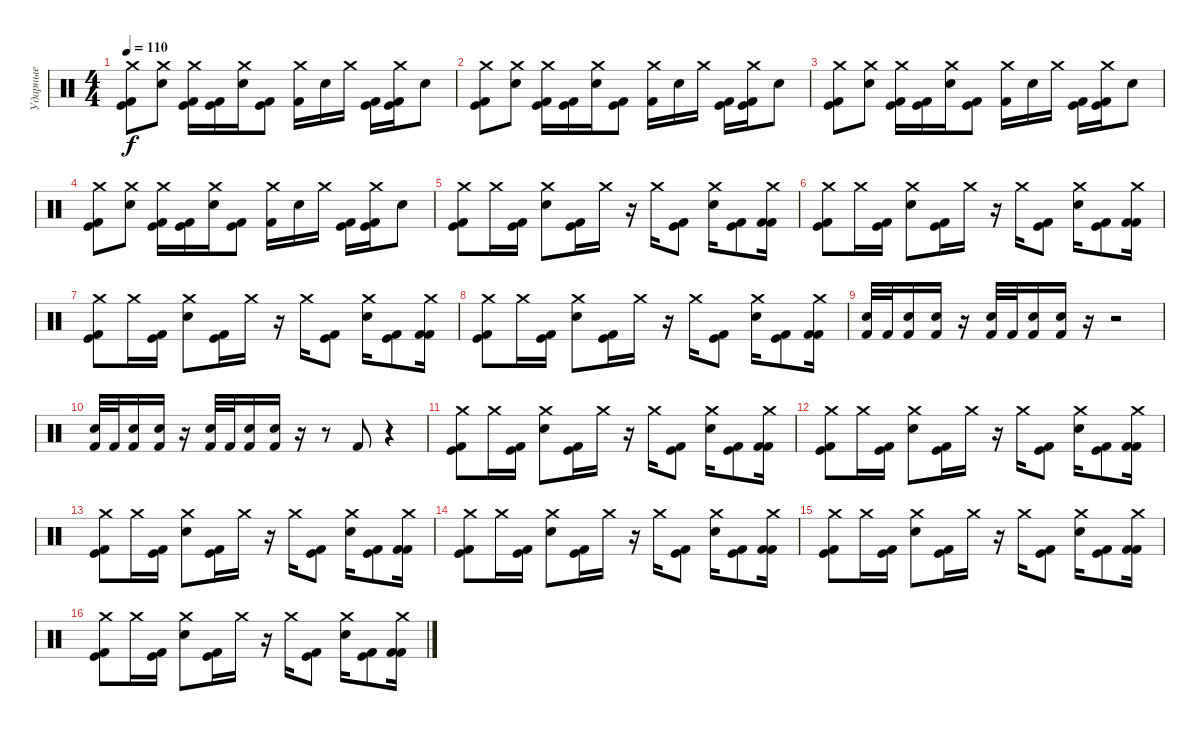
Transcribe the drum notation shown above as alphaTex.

\track ("Ударные" "Ударные") {instrument percussion}
\staff {score}
\articulation defaults
\ts (4 4)
\tempo 110
\clef neutral
\ks c
("Crash medium (hit)" "Kick (hit) 2" "Kick (hit)").8{dy f} ("Crash medium (hit)" "Electric Snare (hit)").8 ("Crash medium (hit)" "Kick (hit) 2" "Kick (hit)").16 ("Kick (hit) 2" "Kick (hit)").16 ("Crash medium (hit)" "Electric Snare (hit)").16 ("Kick (hit) 2" "Kick (hit)").8 ("Crash medium (hit)" "Kick (hit) 2").16 "Electric Snare (hit)".16 "Crash medium (hit)".16 ("Kick (hit) 2" "Kick (hit)").16 ("Crash medium (hit)" "Kick (hit) 2" "Kick (hit)").16 "Electric Snare (hit)".8 |
("Crash medium (hit)" "Kick (hit) 2" "Kick (hit)").8 ("Crash medium (hit)" "Electric Snare (hit)").8 ("Crash medium (hit)" "Kick (hit) 2" "Kick (hit)").16 ("Kick (hit) 2" "Kick (hit)").16 ("Crash medium (hit)" "Electric Snare (hit)").16 ("Kick (hit) 2" "Kick (hit)").8 ("Crash medium (hit)" "Kick (hit) 2").16 "Electric Snare (hit)".16 "Crash medium (hit)".16 ("Kick (hit) 2" "Kick (hit)").16 ("Crash medium (hit)" "Kick (hit) 2" "Kick (hit)").16 "Electric Snare (hit)".8 |
("Crash medium (hit)" "Kick (hit) 2" "Kick (hit)").8 ("Crash medium (hit)" "Electric Snare (hit)").8 ("Crash medium (hit)" "Kick (hit) 2" "Kick (hit)").16 ("Kick (hit) 2" "Kick (hit)").16 ("Crash medium (hit)" "Electric Snare (hit)").16 ("Kick (hit) 2" "Kick (hit)").8 ("Crash medium (hit)" "Kick (hit) 2").16 "Electric Snare (hit)".16 "Crash medium (hit)".16 ("Kick (hit) 2" "Kick (hit)").16 ("Crash medium (hit)" "Kick (hit) 2" "Kick (hit)").16 "Electric Snare (hit)".8 |
("Crash medium (hit)" "Kick (hit) 2" "Kick (hit)").8 ("Crash medium (hit)" "Electric Snare (hit)").8 ("Crash medium (hit)" "Kick (hit) 2" "Kick (hit)").16 ("Kick (hit) 2" "Kick (hit)").16 ("Crash medium (hit)" "Electric Snare (hit)").16 ("Kick (hit) 2" "Kick (hit)").8 ("Crash medium (hit)" "Kick (hit) 2").16 "Electric Snare (hit)".16 "Crash medium (hit)".16 ("Kick (hit) 2" "Kick (hit)").16 ("Crash medium (hit)" "Kick (hit) 2" "Kick (hit)").16 "Electric Snare (hit)".8 |
("Crash medium (hit)" "Kick (hit) 2" "Kick (hit)").8 "Crash medium (hit)".16 ("Kick (hit) 2" "Kick (hit)").16 ("Crash medium (hit)" "Electric Snare (hit)").8 ("Kick (hit) 2" "Kick (hit)").16 "Crash medium (hit)".16 r.16 "Crash medium (hit)".16 ("Kick (hit) 2" "Kick (hit)").8 ("Crash medium (hit)" "Electric Snare (hit)").16 ("Kick (hit) 2" "Kick (hit)").8 ("Crash medium (hit)" "Kick (hit) 2" "Kick (hit) 2").16 |
("Crash medium (hit)" "Kick (hit) 2" "Kick (hit)").8 "Crash medium (hit)".16 ("Kick (hit) 2" "Kick (hit)").16 ("Crash medium (hit)" "Electric Snare (hit)").8 ("Kick (hit) 2" "Kick (hit)").16 "Crash medium (hit)".16 r.16 "Crash medium (hit)".16 ("Kick (hit) 2" "Kick (hit)").8 ("Crash medium (hit)" "Electric Snare (hit)").16 ("Kick (hit) 2" "Kick (hit)").8 ("Crash medium (hit)" "Kick (hit) 2" "Kick (hit) 2").16 |
("Crash medium (hit)" "Kick (hit) 2" "Kick (hit)").8 "Crash medium (hit)".16 ("Kick (hit) 2" "Kick (hit)").16 ("Crash medium (hit)" "Electric Snare (hit)").8 ("Kick (hit) 2" "Kick (hit)").16 "Crash medium (hit)".16 r.16 "Crash medium (hit)".16 ("Kick (hit) 2" "Kick (hit)").8 ("Crash medium (hit)" "Electric Snare (hit)").16 ("Kick (hit) 2" "Kick (hit)").8 ("Crash medium (hit)" "Kick (hit) 2" "Kick (hit) 2").16 |
("Crash medium (hit)" "Kick (hit) 2" "Kick (hit)").8 "Crash medium (hit)".16 ("Kick (hit) 2" "Kick (hit)").16 ("Crash medium (hit)" "Electric Snare (hit)").8 ("Kick (hit) 2" "Kick (hit)").16 "Crash medium (hit)".16 r.16 "Crash medium (hit)".16 ("Kick (hit) 2" "Kick (hit)").8 ("Crash medium (hit)" "Electric Snare (hit)").16 ("Kick (hit) 2" "Kick (hit)").8 ("Crash medium (hit)" "Kick (hit) 2" "Kick (hit) 2").16 |
("Electric Snare (hit)" "Kick (hit) 2").32 "Kick (hit) 2".32 ("Electric Snare (hit)" "Kick (hit) 2").16 ("Electric Snare (hit)" "Kick (hit) 2").16 r.16 ("Electric Snare (hit)" "Kick (hit) 2").32 "Kick (hit) 2".32 ("Electric Snare (hit)" "Kick (hit) 2").16 ("Electric Snare (hit)" "Kick (hit) 2").16 r.16 r.2 |
("Electric Snare (hit)" "Kick (hit) 2").32 "Kick (hit) 2".32 ("Electric Snare (hit)" "Kick (hit) 2").16 ("Electric Snare (hit)" "Kick (hit) 2").16 r.16 ("Electric Snare (hit)" "Kick (hit) 2").32 "Kick (hit) 2".32 ("Electric Snare (hit)" "Kick (hit) 2").16 ("Electric Snare (hit)" "Kick (hit) 2").16 r.16 r.8 "Kick (hit) 2".8 r.4 |
("Crash medium (hit)" "Kick (hit) 2" "Kick (hit)").8 "Crash medium (hit)".16 ("Kick (hit) 2" "Kick (hit)").16 ("Crash medium (hit)" "Electric Snare (hit)").8 ("Kick (hit) 2" "Kick (hit)").16 "Crash medium (hit)".16 r.16 "Crash medium (hit)".16 ("Kick (hit) 2" "Kick (hit)").8 ("Crash medium (hit)" "Electric Snare (hit)").16 ("Kick (hit) 2" "Kick (hit)").8 ("Crash medium (hit)" "Kick (hit) 2" "Kick (hit) 2").16 |
("Crash medium (hit)" "Kick (hit) 2" "Kick (hit)").8 "Crash medium (hit)".16 ("Kick (hit) 2" "Kick (hit)").16 ("Crash medium (hit)" "Electric Snare (hit)").8 ("Kick (hit) 2" "Kick (hit)").16 "Crash medium (hit)".16 r.16 "Crash medium (hit)".16 ("Kick (hit) 2" "Kick (hit)").8 ("Crash medium (hit)" "Electric Snare (hit)").16 ("Kick (hit) 2" "Kick (hit)").8 ("Crash medium (hit)" "Kick (hit) 2" "Kick (hit) 2").16 |
("Crash medium (hit)" "Kick (hit) 2" "Kick (hit)").8 "Crash medium (hit)".16 ("Kick (hit) 2" "Kick (hit)").16 ("Crash medium (hit)" "Electric Snare (hit)").8 ("Kick (hit) 2" "Kick (hit)").16 "Crash medium (hit)".16 r.16 "Crash medium (hit)".16 ("Kick (hit) 2" "Kick (hit)").8 ("Crash medium (hit)" "Electric Snare (hit)").16 ("Kick (hit) 2" "Kick (hit)").8 ("Crash medium (hit)" "Kick (hit) 2" "Kick (hit) 2").16 |
("Crash medium (hit)" "Kick (hit) 2" "Kick (hit)").8 "Crash medium (hit)".16 ("Kick (hit) 2" "Kick (hit)").16 ("Crash medium (hit)" "Electric Snare (hit)").8 ("Kick (hit) 2" "Kick (hit)").16 "Crash medium (hit)".16 r.16 "Crash medium (hit)".16 ("Kick (hit) 2" "Kick (hit)").8 ("Crash medium (hit)" "Electric Snare (hit)").16 ("Kick (hit) 2" "Kick (hit)").8 ("Crash medium (hit)" "Kick (hit) 2" "Kick (hit) 2").16 |
("Crash medium (hit)" "Kick (hit) 2" "Kick (hit)").8 "Crash medium (hit)".16 ("Kick (hit) 2" "Kick (hit)").16 ("Crash medium (hit)" "Electric Snare (hit)").8 ("Kick (hit) 2" "Kick (hit)").16 "Crash medium (hit)".16 r.16 "Crash medium (hit)".16 ("Kick (hit) 2" "Kick (hit)").8 ("Crash medium (hit)" "Electric Snare (hit)").16 ("Kick (hit) 2" "Kick (hit)").8 ("Crash medium (hit)" "Kick (hit) 2" "Kick (hit) 2").16 |
("Crash medium (hit)" "Kick (hit) 2" "Kick (hit)").8 "Crash medium (hit)".16 ("Kick (hit) 2" "Kick (hit)").16 ("Crash medium (hit)" "Electric Snare (hit)").8 ("Kick (hit) 2" "Kick (hit)").16 "Crash medium (hit)".16 r.16 "Crash medium (hit)".16 ("Kick (hit) 2" "Kick (hit)").8 ("Crash medium (hit)" "Electric Snare (hit)").16 ("Kick (hit) 2" "Kick (hit)").8 ("Crash medium (hit)" "Kick (hit) 2" "Kick (hit) 2").16
